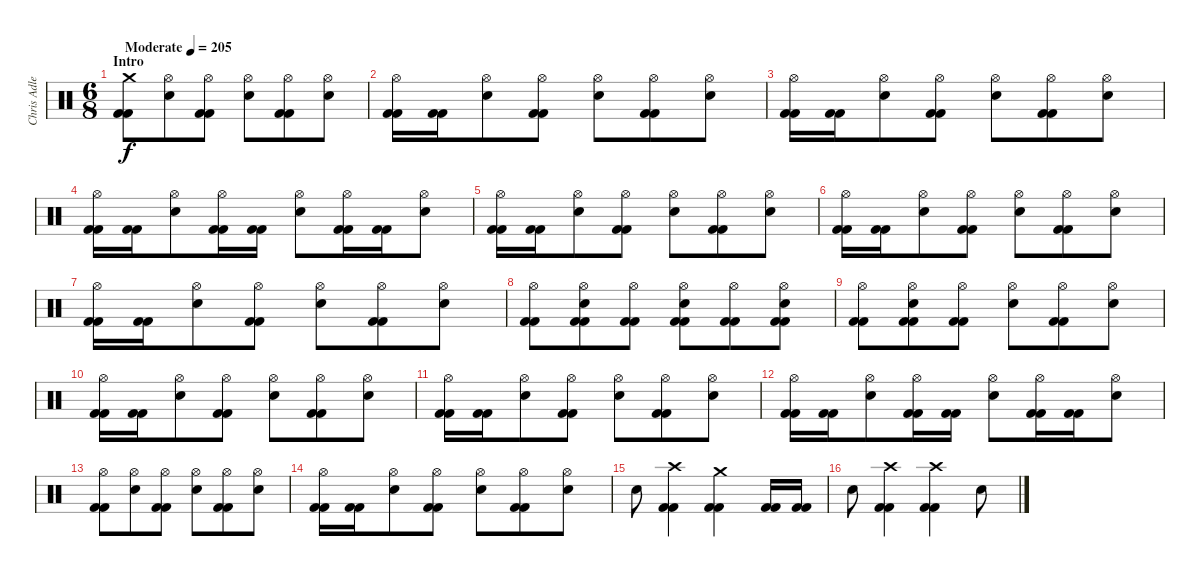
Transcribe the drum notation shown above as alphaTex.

\track ("Chris Adler" "Chris Adle") {instrument percussion}
\staff {score}
\articulation defaults
\ts (6 8)
\section ("" "Intro")
\tempo (205 "Moderate")
\clef neutral
\ks c
("Crash medium (hit)" "Kick (hit) 2" "Kick (hit) 2").8{dy f} ("Hi-Hat (open)" "Electric Snare (hit)").8 ("Hi-Hat (open)" "Kick (hit) 2" "Kick (hit) 2").8 ("Hi-Hat (open)" "Electric Snare (hit)").8 ("Hi-Hat (open)" "Kick (hit) 2" "Kick (hit) 2").8 ("Hi-Hat (open)" "Electric Snare (hit)").8 |
("Hi-Hat (open)" "Kick (hit) 2" "Kick (hit) 2").16 ("Kick (hit) 2" "Kick (hit) 2").16 ("Hi-Hat (open)" "Electric Snare (hit)").8 ("Hi-Hat (open)" "Kick (hit) 2" "Kick (hit) 2").8 ("Hi-Hat (open)" "Electric Snare (hit)").8 ("Hi-Hat (open)" "Kick (hit) 2" "Kick (hit) 2").8 ("Hi-Hat (open)" "Electric Snare (hit)").8 |
("Hi-Hat (open)" "Kick (hit) 2" "Kick (hit) 2").16 ("Kick (hit) 2" "Kick (hit) 2").16 ("Hi-Hat (open)" "Electric Snare (hit)").8 ("Hi-Hat (open)" "Kick (hit) 2" "Kick (hit) 2").8 ("Hi-Hat (open)" "Electric Snare (hit)").8 ("Hi-Hat (open)" "Kick (hit) 2" "Kick (hit) 2").8 ("Hi-Hat (open)" "Electric Snare (hit)").8 |
("Hi-Hat (open)" "Kick (hit) 2" "Kick (hit) 2").16 ("Kick (hit) 2" "Kick (hit) 2").16 ("Hi-Hat (open)" "Electric Snare (hit)").8 ("Hi-Hat (open)" "Kick (hit) 2" "Kick (hit) 2").16 ("Kick (hit) 2" "Kick (hit) 2").16 ("Hi-Hat (open)" "Electric Snare (hit)").8 ("Hi-Hat (open)" "Kick (hit) 2" "Kick (hit) 2").16 ("Kick (hit) 2" "Kick (hit) 2").16 ("Hi-Hat (open)" "Electric Snare (hit)").8 |
("Hi-Hat (open)" "Kick (hit) 2" "Kick (hit) 2").16 ("Kick (hit) 2" "Kick (hit) 2").16 ("Hi-Hat (open)" "Electric Snare (hit)").8 ("Hi-Hat (open)" "Kick (hit) 2" "Kick (hit) 2").8 ("Hi-Hat (open)" "Electric Snare (hit)").8 ("Hi-Hat (open)" "Kick (hit) 2" "Kick (hit) 2").8 ("Hi-Hat (open)" "Electric Snare (hit)").8 |
("Hi-Hat (open)" "Kick (hit) 2" "Kick (hit) 2").16 ("Kick (hit) 2" "Kick (hit) 2").16 ("Hi-Hat (open)" "Electric Snare (hit)").8 ("Hi-Hat (open)" "Kick (hit) 2" "Kick (hit) 2").8 ("Hi-Hat (open)" "Electric Snare (hit)").8 ("Hi-Hat (open)" "Kick (hit) 2" "Kick (hit) 2").8 ("Hi-Hat (open)" "Electric Snare (hit)").8 |
("Hi-Hat (open)" "Kick (hit) 2" "Kick (hit) 2").16 ("Kick (hit) 2" "Kick (hit) 2").16 ("Hi-Hat (open)" "Electric Snare (hit)").8 ("Hi-Hat (open)" "Kick (hit) 2" "Kick (hit) 2").8 ("Hi-Hat (open)" "Electric Snare (hit)").8 ("Hi-Hat (open)" "Kick (hit) 2" "Kick (hit) 2").8 ("Hi-Hat (open)" "Electric Snare (hit)").8 |
("Hi-Hat (open)" "Kick (hit) 2" "Kick (hit) 2").8 ("Hi-Hat (open)" "Electric Snare (hit)" "Kick (hit) 2" "Kick (hit) 2").8 ("Hi-Hat (open)" "Kick (hit) 2" "Kick (hit) 2").8 ("Hi-Hat (open)" "Electric Snare (hit)" "Kick (hit) 2" "Kick (hit) 2").8 ("Hi-Hat (open)" "Kick (hit) 2" "Kick (hit) 2").8 ("Hi-Hat (open)" "Electric Snare (hit)" "Kick (hit) 2" "Kick (hit) 2").8 |
("Hi-Hat (open)" "Kick (hit) 2" "Kick (hit) 2").8 ("Hi-Hat (open)" "Electric Snare (hit)" "Kick (hit) 2" "Kick (hit) 2").8 ("Hi-Hat (open)" "Kick (hit) 2" "Kick (hit) 2").8 ("Hi-Hat (open)" "Electric Snare (hit)").8 ("Hi-Hat (open)" "Kick (hit) 2" "Kick (hit) 2").8 ("Hi-Hat (open)" "Electric Snare (hit)").8 |
("Hi-Hat (open)" "Kick (hit) 2" "Kick (hit) 2").16 ("Kick (hit) 2" "Kick (hit) 2").16 ("Hi-Hat (open)" "Electric Snare (hit)").8 ("Hi-Hat (open)" "Kick (hit) 2" "Kick (hit) 2").8 ("Hi-Hat (open)" "Electric Snare (hit)").8 ("Hi-Hat (open)" "Kick (hit) 2" "Kick (hit) 2").8 ("Hi-Hat (open)" "Electric Snare (hit)").8 |
("Hi-Hat (open)" "Kick (hit) 2" "Kick (hit) 2").16 ("Kick (hit) 2" "Kick (hit) 2").16 ("Hi-Hat (open)" "Electric Snare (hit)").8 ("Hi-Hat (open)" "Kick (hit) 2" "Kick (hit) 2").8 ("Hi-Hat (open)" "Electric Snare (hit)").8 ("Hi-Hat (open)" "Kick (hit) 2" "Kick (hit) 2").8 ("Hi-Hat (open)" "Electric Snare (hit)").8 |
("Hi-Hat (open)" "Kick (hit) 2" "Kick (hit) 2").16 ("Kick (hit) 2" "Kick (hit) 2").16 ("Hi-Hat (open)" "Electric Snare (hit)").8 ("Hi-Hat (open)" "Kick (hit) 2" "Kick (hit) 2").16 ("Kick (hit) 2" "Kick (hit) 2").16 ("Hi-Hat (open)" "Electric Snare (hit)").8 ("Hi-Hat (open)" "Kick (hit) 2" "Kick (hit) 2").16 ("Kick (hit) 2" "Kick (hit) 2").16 ("Hi-Hat (open)" "Electric Snare (hit)").8 |
("Hi-Hat (open)" "Kick (hit) 2" "Kick (hit) 2").8 ("Hi-Hat (open)" "Electric Snare (hit)").8 ("Hi-Hat (open)" "Kick (hit) 2" "Kick (hit) 2").8 ("Hi-Hat (open)" "Electric Snare (hit)").8 ("Hi-Hat (open)" "Kick (hit) 2" "Kick (hit) 2").8 ("Hi-Hat (open)" "Electric Snare (hit)").8 |
("Hi-Hat (open)" "Kick (hit) 2" "Kick (hit) 2").16 ("Kick (hit) 2" "Kick (hit) 2").16 ("Hi-Hat (open)" "Electric Snare (hit)").8 ("Hi-Hat (open)" "Kick (hit) 2" "Kick (hit) 2").8 ("Hi-Hat (open)" "Electric Snare (hit)").8 ("Hi-Hat (open)" "Kick (hit) 2" "Kick (hit) 2").8 ("Hi-Hat (open)" "Electric Snare (hit)").8 |
"Electric Snare (hit)".8 ("Crash high (hit)" "Kick (hit) 2" "Kick (hit) 2").4 ("Crash medium (hit)" "Kick (hit) 2" "Kick (hit) 2").4 ("Kick (hit) 2" "Kick (hit) 2").16 ("Kick (hit) 2" "Kick (hit) 2").16 |
"Electric Snare (hit)".8 ("Crash high (hit)" "Kick (hit) 2" "Kick (hit) 2").4 ("Crash high (hit)" "Kick (hit) 2" "Kick (hit) 2").4 "Electric Snare (hit)".8
